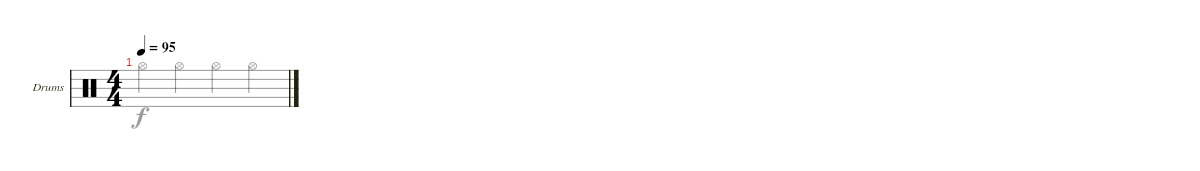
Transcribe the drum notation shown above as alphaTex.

\defaultSystemsLayout 4
\bracketExtendMode groupsimilarinstruments
\firstSystemTrackNameOrientation horizontal
\otherSystemsTrackNameOrientation horizontal
\track ("Drumkit" "Drums") {instrument percussion}
\staff {score}
\articulation defaults
\voice
\ts (4 4)
\tempo 95
\clef neutral
\ks c
|
\voice
\clef neutral
\ks c "Hi-Hat (open)".4{dy f} "Hi-Hat (open)".4 "Hi-Hat (open)".4 "Hi-Hat (open)".4
|
